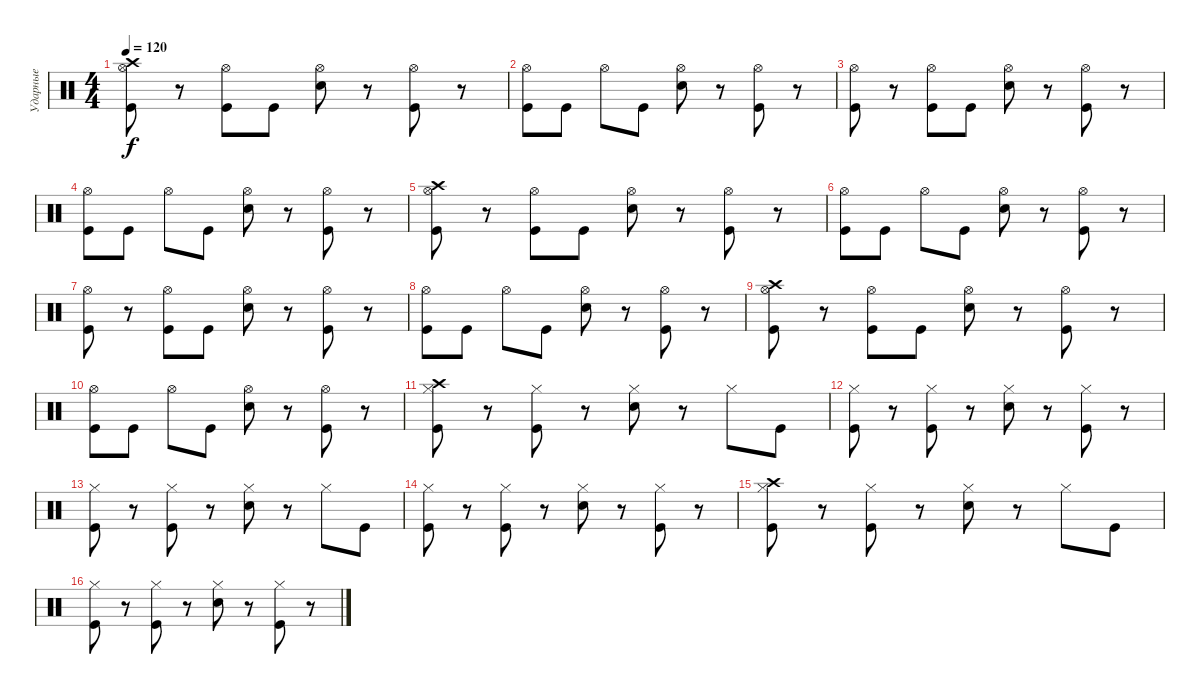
\track ("Ударные" "Ударные") {instrument percussion}
\staff {score}
\articulation defaults
\ts (4 4)
\tempo 120
\clef neutral
\ks c
("Crash high (hit)" "Hi-Hat (open)" "Kick (hit)").8{dy f} r.8 ("Hi-Hat (open)" "Kick (hit)").8 "Kick (hit)".8 ("Hi-Hat (open)" "Electric Snare (hit)").8 r.8 ("Hi-Hat (open)" "Kick (hit)").8 r.8 |
("Hi-Hat (open)" "Kick (hit)").8 "Kick (hit)".8 "Hi-Hat (open)".8 "Kick (hit)".8 ("Hi-Hat (open)" "Electric Snare (hit)").8 r.8 ("Hi-Hat (open)" "Kick (hit)").8 r.8 |
("Hi-Hat (open)" "Kick (hit)").8 r.8 ("Hi-Hat (open)" "Kick (hit)").8 "Kick (hit)".8 ("Hi-Hat (open)" "Electric Snare (hit)").8 r.8 ("Hi-Hat (open)" "Kick (hit)").8 r.8 |
("Hi-Hat (open)" "Kick (hit)").8 "Kick (hit)".8 "Hi-Hat (open)".8 "Kick (hit)".8 ("Hi-Hat (open)" "Electric Snare (hit)").8 r.8 ("Hi-Hat (open)" "Kick (hit)").8 r.8 |
("Crash high (hit)" "Hi-Hat (open)" "Kick (hit)").8 r.8 ("Hi-Hat (open)" "Kick (hit)").8 "Kick (hit)".8 ("Hi-Hat (open)" "Electric Snare (hit)").8 r.8 ("Hi-Hat (open)" "Kick (hit)").8 r.8 |
("Hi-Hat (open)" "Kick (hit)").8 "Kick (hit)".8 "Hi-Hat (open)".8 "Kick (hit)".8 ("Hi-Hat (open)" "Electric Snare (hit)").8 r.8 ("Hi-Hat (open)" "Kick (hit)").8 r.8 |
("Hi-Hat (open)" "Kick (hit)").8 r.8 ("Hi-Hat (open)" "Kick (hit)").8 "Kick (hit)".8 ("Hi-Hat (open)" "Electric Snare (hit)").8 r.8 ("Hi-Hat (open)" "Kick (hit)").8 r.8 |
("Hi-Hat (open)" "Kick (hit)").8 "Kick (hit)".8 "Hi-Hat (open)".8 "Kick (hit)".8 ("Hi-Hat (open)" "Electric Snare (hit)").8 r.8 ("Hi-Hat (open)" "Kick (hit)").8 r.8 |
("Crash high (hit)" "Hi-Hat (open)" "Kick (hit)").8 r.8 ("Hi-Hat (open)" "Kick (hit)").8 "Kick (hit)".8 ("Hi-Hat (open)" "Electric Snare (hit)").8 r.8 ("Hi-Hat (open)" "Kick (hit)").8 r.8 |
("Hi-Hat (open)" "Kick (hit)").8 "Kick (hit)".8 "Hi-Hat (open)".8 "Kick (hit)".8 ("Hi-Hat (open)" "Electric Snare (hit)").8 r.8 ("Hi-Hat (open)" "Kick (hit)").8 r.8 |
("Crash high (hit)" "Hi-Hat (closed)" "Kick (hit)").8 r.8 ("Hi-Hat (closed)" "Kick (hit)").8 r.8 ("Hi-Hat (closed)" "Electric Snare (hit)").8 r.8 "Hi-Hat (closed)".8 "Kick (hit)".8 |
("Hi-Hat (closed)" "Kick (hit)").8 r.8 ("Hi-Hat (closed)" "Kick (hit)").8 r.8 ("Hi-Hat (closed)" "Electric Snare (hit)").8 r.8 ("Hi-Hat (closed)" "Kick (hit)").8 r.8 |
("Hi-Hat (closed)" "Kick (hit)").8 r.8 ("Hi-Hat (closed)" "Kick (hit)").8 r.8 ("Hi-Hat (closed)" "Electric Snare (hit)").8 r.8 "Hi-Hat (closed)".8 "Kick (hit)".8 |
("Hi-Hat (closed)" "Kick (hit)").8 r.8 ("Hi-Hat (closed)" "Kick (hit)").8 r.8 ("Hi-Hat (closed)" "Electric Snare (hit)").8 r.8 ("Hi-Hat (closed)" "Kick (hit)").8 r.8 |
("Crash high (hit)" "Hi-Hat (closed)" "Kick (hit)").8 r.8 ("Hi-Hat (closed)" "Kick (hit)").8 r.8 ("Hi-Hat (closed)" "Electric Snare (hit)").8 r.8 "Hi-Hat (closed)".8 "Kick (hit)".8 |
("Hi-Hat (closed)" "Kick (hit)").8 r.8 ("Hi-Hat (closed)" "Kick (hit)").8 r.8 ("Hi-Hat (closed)" "Electric Snare (hit)").8 r.8 ("Hi-Hat (closed)" "Kick (hit)").8 r.8
